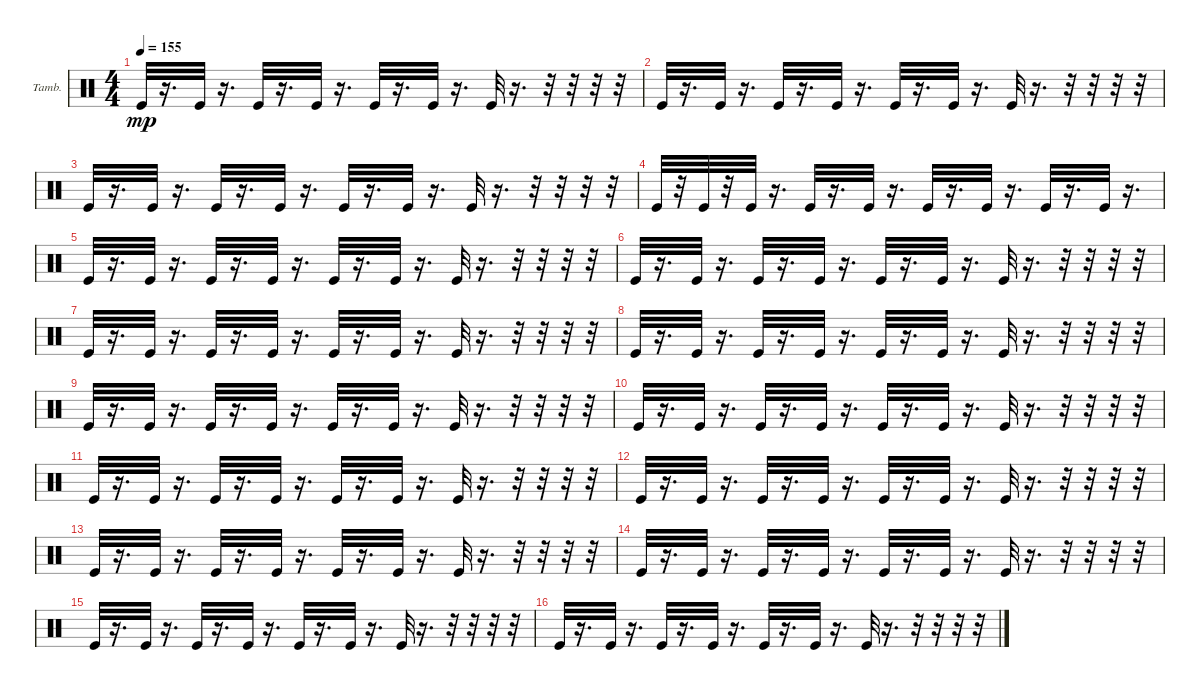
\bracketExtendMode groupsimilarinstruments
\firstSystemTrackNameOrientation horizontal
\otherSystemsTrackNameOrientation horizontal
\track ("Е. Кулаков" "Tamb.") {instrument percussion}
\staff {score}
\articulation defaults
\ts (4 4)
\tempo 155
\clef neutral
\ks c "Kick (hit)".32{dy mp}
r.16{d} "Kick (hit)".32 r.16{d} "Kick (hit)".32 r.16{d} "Kick (hit)".32 r.16{d} "Kick (hit)".32 r.16{d} "Kick (hit)".32 r.16{d} "Kick (hit)".32 r.16{d} r.32 r.32 r.32 r.32 |
"Kick (hit)".32 r.16{d} "Kick (hit)".32 r.16{d} "Kick (hit)".32 r.16{d} "Kick (hit)".32 r.16{d} "Kick (hit)".32 r.16{d} "Kick (hit)".32 r.16{d} "Kick (hit)".32 r.16{d} r.32 r.32 r.32 r.32 |
"Kick (hit)".32 r.16{d} "Kick (hit)".32 r.16{d} "Kick (hit)".32 r.16{d} "Kick (hit)".32 r.16{d} "Kick (hit)".32 r.16{d} "Kick (hit)".32 r.16{d} "Kick (hit)".32 r.16{d} r.32 r.32 r.32 r.32 |
"Kick (hit)".32 r.32 "Kick (hit)".32 r.32 "Kick (hit)".32 r.16{d} "Kick (hit)".32 r.16{d} "Kick (hit)".32 r.16{d} "Kick (hit)".32 r.16{d} "Kick (hit)".32 r.16{d} "Kick (hit)".32 r.16{d} "Kick (hit)".32 r.16{d} |
"Kick (hit)".32 r.16{d} "Kick (hit)".32 r.16{d} "Kick (hit)".32 r.16{d} "Kick (hit)".32 r.16{d} "Kick (hit)".32 r.16{d} "Kick (hit)".32 r.16{d} "Kick (hit)".32 r.16{d} r.32 r.32 r.32 r.32 |
"Kick (hit)".32 r.16{d} "Kick (hit)".32 r.16{d} "Kick (hit)".32 r.16{d} "Kick (hit)".32 r.16{d} "Kick (hit)".32 r.16{d} "Kick (hit)".32 r.16{d} "Kick (hit)".32 r.16{d} r.32 r.32 r.32 r.32 |
"Kick (hit)".32 r.16{d} "Kick (hit)".32 r.16{d} "Kick (hit)".32 r.16{d} "Kick (hit)".32 r.16{d} "Kick (hit)".32 r.16{d} "Kick (hit)".32 r.16{d} "Kick (hit)".32 r.16{d} r.32 r.32 r.32 r.32 |
"Kick (hit)".32 r.16{d} "Kick (hit)".32 r.16{d} "Kick (hit)".32 r.16{d} "Kick (hit)".32 r.16{d} "Kick (hit)".32 r.16{d} "Kick (hit)".32 r.16{d} "Kick (hit)".32 r.16{d} r.32 r.32 r.32 r.32 |
"Kick (hit)".32 r.16{d} "Kick (hit)".32 r.16{d} "Kick (hit)".32 r.16{d} "Kick (hit)".32 r.16{d} "Kick (hit)".32 r.16{d} "Kick (hit)".32 r.16{d} "Kick (hit)".32 r.16{d} r.32 r.32 r.32 r.32 |
"Kick (hit)".32 r.16{d} "Kick (hit)".32 r.16{d} "Kick (hit)".32 r.16{d} "Kick (hit)".32 r.16{d} "Kick (hit)".32 r.16{d} "Kick (hit)".32 r.16{d} "Kick (hit)".32 r.16{d} r.32 r.32 r.32 r.32 |
"Kick (hit)".32 r.16{d} "Kick (hit)".32 r.16{d} "Kick (hit)".32 r.16{d} "Kick (hit)".32 r.16{d} "Kick (hit)".32 r.16{d} "Kick (hit)".32 r.16{d} "Kick (hit)".32 r.16{d} r.32 r.32 r.32 r.32 |
"Kick (hit)".32 r.16{d} "Kick (hit)".32 r.16{d} "Kick (hit)".32 r.16{d} "Kick (hit)".32 r.16{d} "Kick (hit)".32 r.16{d} "Kick (hit)".32 r.16{d} "Kick (hit)".32 r.16{d} r.32 r.32 r.32 r.32 |
"Kick (hit)".32 r.16{d} "Kick (hit)".32 r.16{d} "Kick (hit)".32 r.16{d} "Kick (hit)".32 r.16{d} "Kick (hit)".32 r.16{d} "Kick (hit)".32 r.16{d} "Kick (hit)".32 r.16{d} r.32 r.32 r.32 r.32 |
"Kick (hit)".32 r.16{d} "Kick (hit)".32 r.16{d} "Kick (hit)".32 r.16{d} "Kick (hit)".32 r.16{d} "Kick (hit)".32 r.16{d} "Kick (hit)".32 r.16{d} "Kick (hit)".32 r.16{d} r.32 r.32 r.32 r.32 |
"Kick (hit)".32 r.16{d} "Kick (hit)".32 r.16{d} "Kick (hit)".32 r.16{d} "Kick (hit)".32 r.16{d} "Kick (hit)".32 r.16{d} "Kick (hit)".32 r.16{d} "Kick (hit)".32 r.16{d} r.32 r.32 r.32 r.32 |
"Kick (hit)".32 r.16{d} "Kick (hit)".32 r.16{d} "Kick (hit)".32 r.16{d} "Kick (hit)".32 r.16{d} "Kick (hit)".32 r.16{d} "Kick (hit)".32 r.16{d} "Kick (hit)".32 r.16{d} r.32 r.32 r.32 r.32
